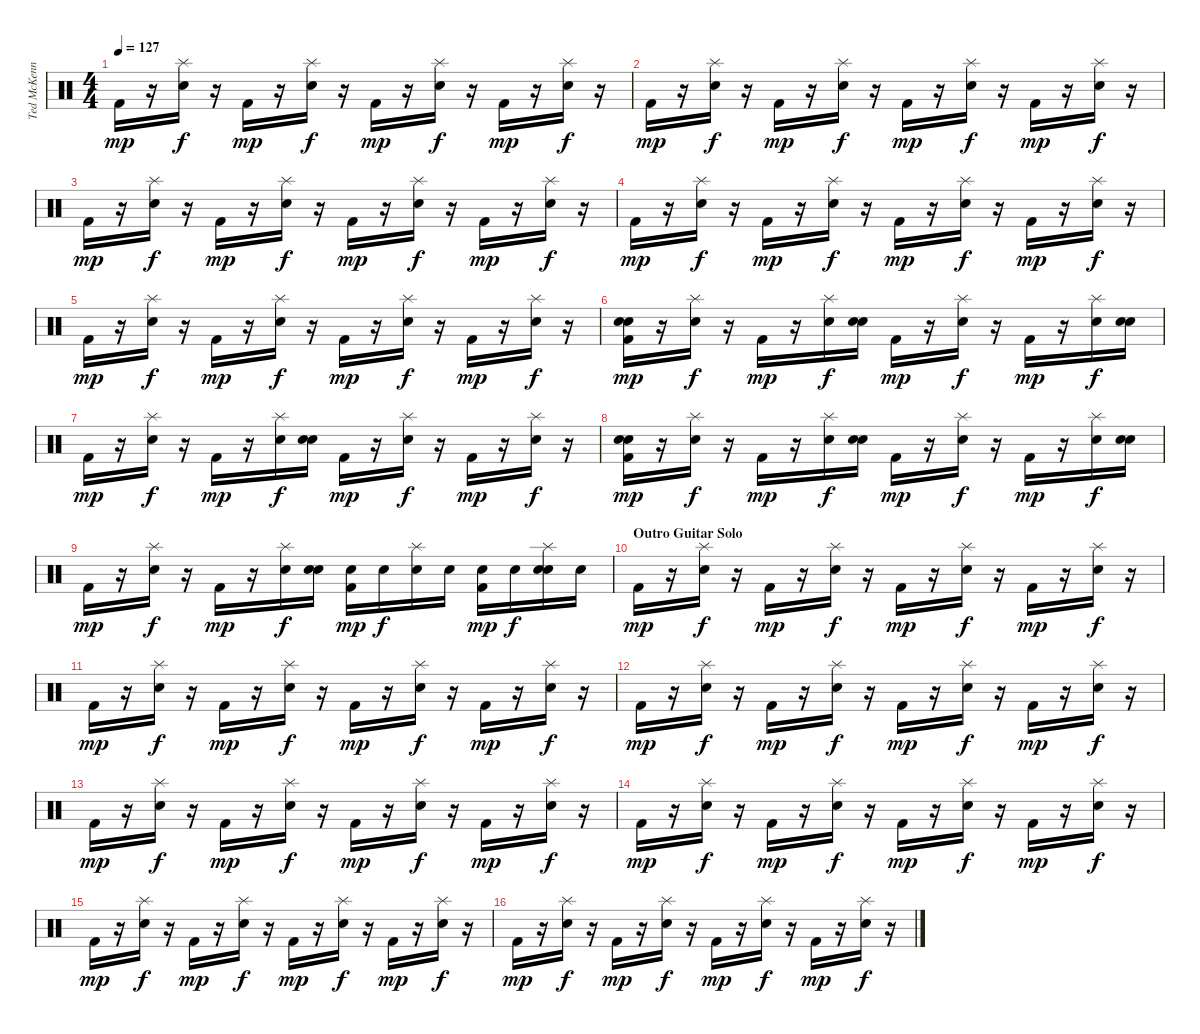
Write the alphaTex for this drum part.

\track ("Ted McKenna" "Ted McKenn") {instrument percussion}
\staff {score}
\articulation defaults
\ts (4 4)
\tempo 127
\clef neutral
\ks c "Kick (hit) 2".16{dy mp}
r.16 ("Splash (hit)" "Snare (hit) 2").16{dy f} r.16 "Kick (hit) 2".16{dy mp} r.16 ("Splash (hit)" "Snare (hit) 2").16{dy f} r.16 "Kick (hit) 2".16{dy mp} r.16 ("Splash (hit)" "Snare (hit) 2").16{dy f} r.16 "Kick (hit) 2".16{dy mp} r.16 ("Splash (hit)" "Snare (hit) 2").16{dy f} r.16 |
"Kick (hit) 2".16{dy mp} r.16 ("Splash (hit)" "Snare (hit) 2").16{dy f} r.16 "Kick (hit) 2".16{dy mp} r.16 ("Splash (hit)" "Snare (hit) 2").16{dy f} r.16 "Kick (hit) 2".16{dy mp} r.16 ("Splash (hit)" "Snare (hit) 2").16{dy f} r.16 "Kick (hit) 2".16{dy mp} r.16 ("Splash (hit)" "Snare (hit) 2").16{dy f} r.16 |
"Kick (hit) 2".16{dy mp} r.16 ("Splash (hit)" "Snare (hit) 2").16{dy f} r.16 "Kick (hit) 2".16{dy mp} r.16 ("Splash (hit)" "Snare (hit) 2").16{dy f} r.16 "Kick (hit) 2".16{dy mp} r.16 ("Splash (hit)" "Snare (hit) 2").16{dy f} r.16 "Kick (hit) 2".16{dy mp} r.16 ("Splash (hit)" "Snare (hit) 2").16{dy f} r.16 |
"Kick (hit) 2".16{dy mp} r.16 ("Splash (hit)" "Snare (hit) 2").16{dy f} r.16 "Kick (hit) 2".16{dy mp} r.16 ("Splash (hit)" "Snare (hit) 2").16{dy f} r.16 "Kick (hit) 2".16{dy mp} r.16 ("Splash (hit)" "Snare (hit) 2").16{dy f} r.16 "Kick (hit) 2".16{dy mp} r.16 ("Splash (hit)" "Snare (hit) 2").16{dy f} r.16 |
"Kick (hit) 2".16{dy mp} r.16 ("Splash (hit)" "Snare (hit) 2").16{dy f} r.16 "Kick (hit) 2".16{dy mp} r.16 ("Splash (hit)" "Snare (hit) 2").16{dy f} r.16 "Kick (hit) 2".16{dy mp} r.16 ("Splash (hit)" "Snare (hit) 2").16{dy f} r.16 "Kick (hit) 2".16{dy mp} r.16 ("Splash (hit)" "Snare (hit) 2").16{dy f} r.16 |
("Electric Snare (hit)" "Electric Snare (hit)" "Kick (hit) 2").16{dy mp} r.16 ("Splash (hit)" "Snare (hit) 2").16{dy f} r.16 "Kick (hit) 2".16{dy mp} r.16 ("Splash (hit)" "Snare (hit) 2").16{dy f} ("Electric Snare (hit)" "Electric Snare (hit)").16 "Kick (hit) 2".16{dy mp} r.16 ("Splash (hit)" "Snare (hit) 2").16{dy f} r.16 "Kick (hit) 2".16{dy mp} r.16 ("Splash (hit)" "Snare (hit) 2").16{dy f} ("Electric Snare (hit)" "Electric Snare (hit)").16 |
"Kick (hit) 2".16{dy mp} r.16 ("Splash (hit)" "Snare (hit) 2").16{dy f} r.16 "Kick (hit) 2".16{dy mp} r.16 ("Splash (hit)" "Snare (hit) 2").16{dy f} ("Electric Snare (hit)" "Electric Snare (hit)").16 "Kick (hit) 2".16{dy mp} r.16 ("Splash (hit)" "Snare (hit) 2").16{dy f} r.16 "Kick (hit) 2".16{dy mp} r.16 ("Splash (hit)" "Snare (hit) 2").16{dy f} r.16 |
("Electric Snare (hit)" "Electric Snare (hit)" "Kick (hit) 2").16{dy mp} r.16 ("Splash (hit)" "Snare (hit) 2").16{dy f} r.16 "Kick (hit) 2".16{dy mp} r.16 ("Splash (hit)" "Snare (hit) 2").16{dy f} ("Electric Snare (hit)" "Electric Snare (hit)").16 "Kick (hit) 2".16{dy mp} r.16 ("Splash (hit)" "Snare (hit) 2").16{dy f} r.16 "Kick (hit) 2".16{dy mp} r.16 ("Splash (hit)" "Snare (hit) 2").16{dy f} ("Electric Snare (hit)" "Electric Snare (hit)").16 |
"Kick (hit) 2".16{dy mp} r.16 ("Splash (hit)" "Snare (hit) 2").16{dy f} r.16 "Kick (hit) 2".16{dy mp} r.16 ("Splash (hit)" "Snare (hit) 2").16{dy f} ("Electric Snare (hit)" "Electric Snare (hit)").16 ("Electric Snare (hit)" "Kick (hit) 2").16{dy mp} "Electric Snare (hit)".16{dy f} ("Splash (hit)" "Snare (hit) 2").16 "Snare (hit) 2".16 ("Electric Snare (hit)" "Kick (hit) 2").16{dy mp} "Electric Snare (hit)".16{dy f} ("Splash (hit)" "Snare (hit) 2" "Electric Snare (hit)").16 "Electric Snare (hit)".16 |
\section ("" "Outro Guitar Solo")
"Kick (hit) 2".16{dy mp} r.16 ("Splash (hit)" "Snare (hit) 2").16{dy f} r.16 "Kick (hit) 2".16{dy mp} r.16 ("Splash (hit)" "Snare (hit) 2").16{dy f} r.16 "Kick (hit) 2".16{dy mp} r.16 ("Splash (hit)" "Snare (hit) 2").16{dy f} r.16 "Kick (hit) 2".16{dy mp} r.16 ("Splash (hit)" "Snare (hit) 2").16{dy f} r.16 |
"Kick (hit) 2".16{dy mp} r.16 ("Splash (hit)" "Snare (hit) 2").16{dy f} r.16 "Kick (hit) 2".16{dy mp} r.16 ("Splash (hit)" "Snare (hit) 2").16{dy f} r.16 "Kick (hit) 2".16{dy mp} r.16 ("Splash (hit)" "Snare (hit) 2").16{dy f} r.16 "Kick (hit) 2".16{dy mp} r.16 ("Splash (hit)" "Snare (hit) 2").16{dy f} r.16 |
"Kick (hit) 2".16{dy mp} r.16 ("Splash (hit)" "Snare (hit) 2").16{dy f} r.16 "Kick (hit) 2".16{dy mp} r.16 ("Splash (hit)" "Snare (hit) 2").16{dy f} r.16 "Kick (hit) 2".16{dy mp} r.16 ("Splash (hit)" "Snare (hit) 2").16{dy f} r.16 "Kick (hit) 2".16{dy mp} r.16 ("Splash (hit)" "Snare (hit) 2").16{dy f} r.16 |
"Kick (hit) 2".16{dy mp} r.16 ("Splash (hit)" "Snare (hit) 2").16{dy f} r.16 "Kick (hit) 2".16{dy mp} r.16 ("Splash (hit)" "Snare (hit) 2").16{dy f} r.16 "Kick (hit) 2".16{dy mp} r.16 ("Splash (hit)" "Snare (hit) 2").16{dy f} r.16 "Kick (hit) 2".16{dy mp} r.16 ("Splash (hit)" "Snare (hit) 2").16{dy f} r.16 |
"Kick (hit) 2".16{dy mp} r.16 ("Splash (hit)" "Snare (hit) 2").16{dy f} r.16 "Kick (hit) 2".16{dy mp} r.16 ("Splash (hit)" "Snare (hit) 2").16{dy f} r.16 "Kick (hit) 2".16{dy mp} r.16 ("Splash (hit)" "Snare (hit) 2").16{dy f} r.16 "Kick (hit) 2".16{dy mp} r.16 ("Splash (hit)" "Snare (hit) 2").16{dy f} r.16 |
"Kick (hit) 2".16{dy mp} r.16 ("Splash (hit)" "Snare (hit) 2").16{dy f} r.16 "Kick (hit) 2".16{dy mp} r.16 ("Splash (hit)" "Snare (hit) 2").16{dy f} r.16 "Kick (hit) 2".16{dy mp} r.16 ("Splash (hit)" "Snare (hit) 2").16{dy f} r.16 "Kick (hit) 2".16{dy mp} r.16 ("Splash (hit)" "Snare (hit) 2").16{dy f} r.16 |
"Kick (hit) 2".16{dy mp} r.16 ("Splash (hit)" "Snare (hit) 2").16{dy f} r.16 "Kick (hit) 2".16{dy mp} r.16 ("Splash (hit)" "Snare (hit) 2").16{dy f} r.16 "Kick (hit) 2".16{dy mp} r.16 ("Splash (hit)" "Snare (hit) 2").16{dy f} r.16 "Kick (hit) 2".16{dy mp} r.16 ("Splash (hit)" "Snare (hit) 2").16{dy f} r.16
